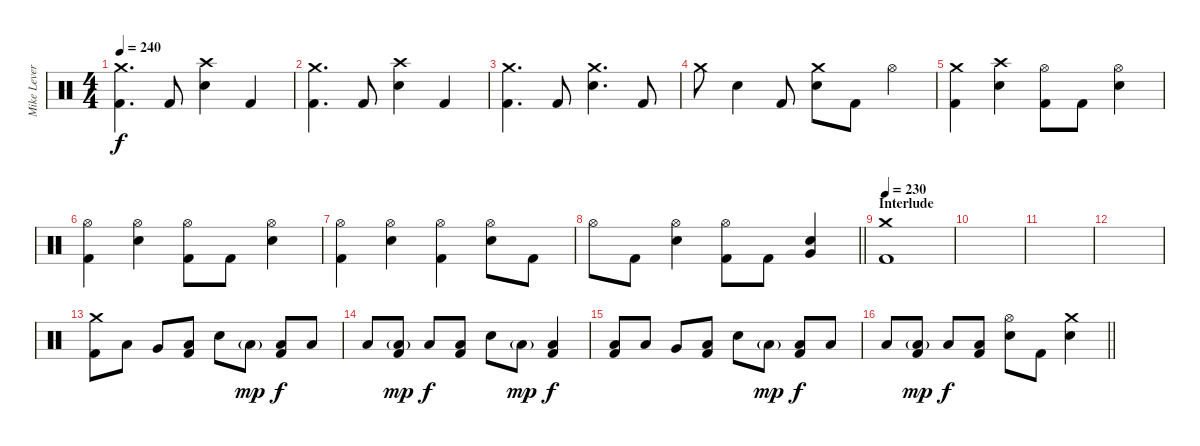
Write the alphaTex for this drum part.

\track ("Mike Leverence - Drums" "Mike Lever") {instrument percussion}
\staff {score}
\articulation defaults
\ts (4 4)
\tempo 240
\clef neutral
\ks c
("Crash medium (hit)" "Kick (hit) 2").4{d dy f} "Kick (hit) 2".8 ("Crash high (hit)" "Electric Snare (hit)").4 "Kick (hit) 2".4 |
("Crash medium (hit)" "Kick (hit) 2").4{d} "Kick (hit) 2".8 ("Crash high (hit)" "Electric Snare (hit)").4 "Kick (hit) 2".4 |
("Crash medium (hit)" "Kick (hit) 2").4{d} "Kick (hit) 2".8 ("Crash medium (hit)" "Electric Snare (hit)").4{d} "Kick (hit) 2".8 |
"Crash medium (hit)".8 "Electric Snare (hit)".4 "Kick (hit) 2".8 ("Crash medium (hit)" "Electric Snare (hit)").8 "Kick (hit) 2".8 "Hi-Hat (open)".4 |
("Crash medium (hit)" "Kick (hit) 2").4 ("Crash high (hit)" "Electric Snare (hit)").4 ("Hi-Hat (open)" "Kick (hit) 2").8 "Kick (hit) 2".8 ("Hi-Hat (open)" "Electric Snare (hit)").4 |
("Hi-Hat (open)" "Kick (hit) 2").4 ("Hi-Hat (open)" "Electric Snare (hit)").4 ("Hi-Hat (open)" "Kick (hit) 2").8 "Kick (hit) 2".8 ("Hi-Hat (open)" "Electric Snare (hit)").4 |
("Hi-Hat (open)" "Kick (hit) 2").4 ("Hi-Hat (open)" "Electric Snare (hit)").4 ("Hi-Hat (open)" "Kick (hit) 2").4 ("Hi-Hat (open)" "Electric Snare (hit)").8 "Kick (hit) 2".8 |
\barLineRight lightlight "Hi-Hat (open)".8 "Kick (hit) 2".8
("Hi-Hat (open)" "Electric Snare (hit)").4 ("Hi-Hat (open)" "Kick (hit) 2").8 "Kick (hit) 2".8 ("Very Low Tom (hit)" "Electric Snare (hit)").4 |
\section ("" "Interlude")
\tempo 230
("Crash medium (hit)" "Kick (hit) 2").1 |
|
|
|
("Crash medium (hit)" "Kick (hit) 2").8 "Low Tom (hit)".8 "Very Low Tom (hit)".8 ("Low Floor Tom (hit)" "Kick (hit) 2").8 "Electric Snare (hit)".8 "Low Floor Tom (hit)"{g}.8{dy mp} ("Low Floor Tom (hit)" "Kick (hit) 2").8{dy f} "Low Tom (hit)".8 |
"Low Floor Tom (hit)".8 ("Low Floor Tom (hit)"{g} "Kick (hit) 2").8{dy mp} "Low Tom (hit)".8{dy f} ("Low Floor Tom (hit)" "Kick (hit) 2").8 "Electric Snare (hit)".8 "Low Floor Tom (hit)"{g}.8{dy mp} ("Low Floor Tom (hit)" "Kick (hit) 2").4{dy f} |
("Low Floor Tom (hit)" "Kick (hit) 2").8 "Low Tom (hit)".8 "Very Low Tom (hit)".8 ("Low Floor Tom (hit)" "Kick (hit) 2").8 "Electric Snare (hit)".8 "Low Floor Tom (hit)"{g}.8{dy mp} ("Low Floor Tom (hit)" "Kick (hit) 2").8{dy f} "Low Tom (hit)".8 |
\barLineRight lightlight "Low Floor Tom (hit)".8
("Low Floor Tom (hit)"{g} "Kick (hit) 2").8{dy mp} "Low Tom (hit)".8{dy f} ("Low Floor Tom (hit)" "Kick (hit) 2").8 ("Hi-Hat (open)" "Electric Snare (hit)").8 "Kick (hit) 2".8 ("Crash medium (hit)" "Electric Snare (hit)").4
